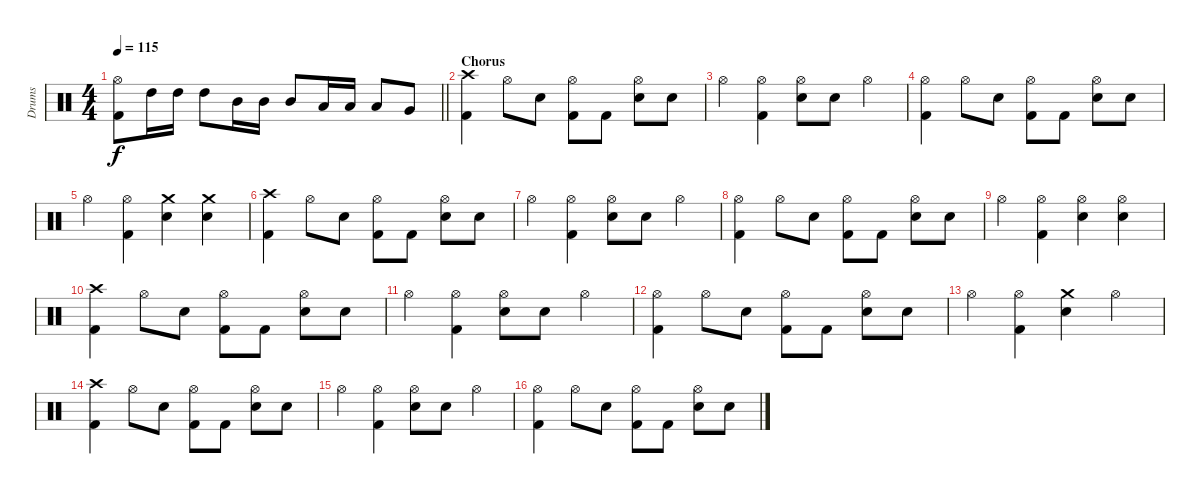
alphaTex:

\track ("Drums" "Drums") {instrument percussion}
\staff {score}
\articulation defaults
\ts (4 4)
\tempo 115
\clef neutral
\barLineRight lightlight
\ks c
("Hi-Hat (open)" "Kick (hit) 2").8{dy f} "High Tom (hit)".16 "High Tom (hit)".16 "High Tom (hit)".8 "Mid Tom (hit)".16 "Mid Tom (hit)".16 "Mid Tom (hit)".8 "Low Tom (hit)".16 "Low Tom (hit)".16 "Low Tom (hit)".8 "Very Low Tom (hit)".8 |
\section ("" "Chorus")
("Crash high (hit)" "Kick (hit) 2").4 "Hi-Hat (open)".8 "Electric Snare (hit)".8 ("Hi-Hat (open)" "Kick (hit) 2").8 "Kick (hit) 2".8 ("Hi-Hat (open)" "Electric Snare (hit)").8 "Electric Snare (hit)".8 |
"Hi-Hat (open)".4 ("Hi-Hat (open)" "Kick (hit) 2").4 ("Hi-Hat (open)" "Electric Snare (hit)").8 "Electric Snare (hit)".8 "Hi-Hat (open)".4 |
("Hi-Hat (open)" "Kick (hit) 2").4 "Hi-Hat (open)".8 "Electric Snare (hit)".8 ("Hi-Hat (open)" "Kick (hit) 2").8 "Kick (hit) 2".8 ("Hi-Hat (open)" "Electric Snare (hit)").8 "Electric Snare (hit)".8 |
"Hi-Hat (open)".4 ("Hi-Hat (open)" "Kick (hit) 2").4 ("Crash medium (hit)" "Electric Snare (hit)").4 ("Crash medium (hit)" "Electric Snare (hit)").4 |
("Crash high (hit)" "Kick (hit) 2").4 "Hi-Hat (open)".8 "Electric Snare (hit)".8 ("Hi-Hat (open)" "Kick (hit) 2").8 "Kick (hit) 2".8 ("Hi-Hat (open)" "Electric Snare (hit)").8 "Electric Snare (hit)".8 |
"Hi-Hat (open)".4 ("Hi-Hat (open)" "Kick (hit) 2").4 ("Hi-Hat (open)" "Electric Snare (hit)").8 "Electric Snare (hit)".8 "Hi-Hat (open)".4 |
("Hi-Hat (open)" "Kick (hit) 2").4 "Hi-Hat (open)".8 "Electric Snare (hit)".8 ("Hi-Hat (open)" "Kick (hit) 2").8 "Kick (hit) 2".8 ("Hi-Hat (open)" "Electric Snare (hit)").8 "Electric Snare (hit)".8 |
"Hi-Hat (open)".4 ("Hi-Hat (open)" "Kick (hit) 2").4 ("Hi-Hat (open)" "Electric Snare (hit)").4 ("Hi-Hat (open)" "Electric Snare (hit)").4 |
("Crash high (hit)" "Kick (hit) 2").4 "Hi-Hat (open)".8 "Electric Snare (hit)".8 ("Hi-Hat (open)" "Kick (hit) 2").8 "Kick (hit) 2".8 ("Hi-Hat (open)" "Electric Snare (hit)").8 "Electric Snare (hit)".8 |
"Hi-Hat (open)".4 ("Hi-Hat (open)" "Kick (hit) 2").4 ("Hi-Hat (open)" "Electric Snare (hit)").8 "Electric Snare (hit)".8 "Hi-Hat (open)".4 |
("Hi-Hat (open)" "Kick (hit) 2").4 "Hi-Hat (open)".8 "Electric Snare (hit)".8 ("Hi-Hat (open)" "Kick (hit) 2").8 "Kick (hit) 2".8 ("Hi-Hat (open)" "Electric Snare (hit)").8 "Electric Snare (hit)".8 |
"Hi-Hat (open)".4 ("Hi-Hat (open)" "Kick (hit) 2").4 ("Crash medium (hit)" "Electric Snare (hit)").4 "Hi-Hat (open)".4 |
("Crash high (hit)" "Kick (hit) 2").4 "Hi-Hat (open)".8 "Electric Snare (hit)".8 ("Hi-Hat (open)" "Kick (hit) 2").8 "Kick (hit) 2".8 ("Hi-Hat (open)" "Electric Snare (hit)").8 "Electric Snare (hit)".8 |
"Hi-Hat (open)".4 ("Hi-Hat (open)" "Kick (hit) 2").4 ("Hi-Hat (open)" "Electric Snare (hit)").8 "Electric Snare (hit)".8 "Hi-Hat (open)".4 |
("Hi-Hat (open)" "Kick (hit) 2").4 "Hi-Hat (open)".8 "Electric Snare (hit)".8 ("Hi-Hat (open)" "Kick (hit) 2").8 "Kick (hit) 2".8 ("Hi-Hat (open)" "Electric Snare (hit)").8 "Electric Snare (hit)".8
